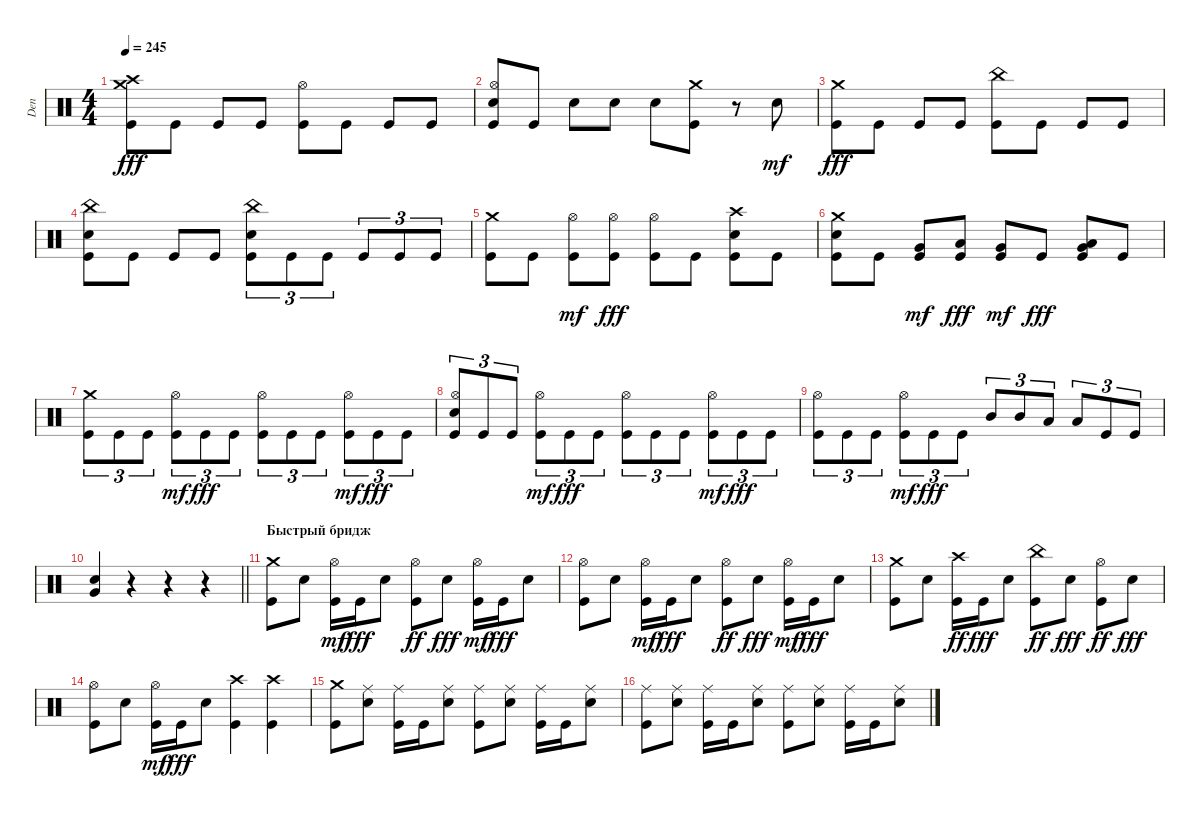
\track ("Den" "Den") {instrument percussion}
\staff {score}
\articulation defaults
\ts (4 4)
\tempo 245
\clef neutral
\ks c
("Crash medium (hit)" "Crash high (hit)" "Kick (hit)").8{dy fff} "Kick (hit)".8 "Kick (hit)".8 "Kick (hit)".8 ("Hi-Hat (open)" "Kick (hit)").8 "Kick (hit)".8 "Kick (hit)".8 "Kick (hit)".8 |
("Electric Snare (hit)" "Hi-Hat (open)" "Kick (hit)").8 "Kick (hit)".8 "Electric Snare (hit)".8 "Electric Snare (hit)".8 "Electric Snare (hit)".8 ("Crash medium (hit)" "Kick (hit)").8 r.8 "Electric Snare (hit)".8{dy mf} |
("Kick (hit)" "Crash medium (hit)").8{dy fff} "Kick (hit)".8 "Kick (hit)".8 "Kick (hit)".8 ("Kick (hit)" "China (hit)").8 "Kick (hit)".8 "Kick (hit)".8 "Kick (hit)".8 |
("Kick (hit)" "Electric Snare (hit)" "China (hit)").8 "Kick (hit)".8 "Kick (hit)".8 "Kick (hit)".8 ("Kick (hit)" "China (hit)" "Electric Snare (hit)").8{tu (3 2)} "Kick (hit)".8{tu (3 2)} "Kick (hit)".8{tu (3 2)} "Kick (hit)".8{tu (3 2)} "Kick (hit)".8{tu (3 2)} "Kick (hit)".8{tu (3 2)} |
("Kick (hit)" "Crash medium (hit)").8 "Kick (hit)".8 ("Kick (hit)" "Hi-Hat (open)").8{dy mf} ("Kick (hit)" "Hi-Hat (open)").8{dy fff} ("Kick (hit)" "Hi-Hat (open)").8 "Kick (hit)".8 ("Kick (hit)" "Crash high (hit)" "Electric Snare (hit)").8 "Kick (hit)".8 |
("Electric Snare (hit)" "Kick (hit)" "Crash medium (hit)").8 "Kick (hit)".8 ("Kick (hit)" "Very Low Tom (hit)").8{dy mf} ("Kick (hit)" "Low Tom (hit)").8{dy fff} ("Kick (hit)" "Very Low Tom (hit)").8{dy mf} "Kick (hit)".8{dy fff} ("Kick (hit)" "Very Low Tom (hit)" "Low Tom (hit)").8 "Kick (hit)".8 |
("Kick (hit)" "Crash medium (hit)").8{tu (3 2)} "Kick (hit)".8{tu (3 2)} "Kick (hit)".8{tu (3 2)} ("Kick (hit)" "Hi-Hat (open)").8{tu (3 2) dy mf} "Kick (hit)".8{tu (3 2) dy fff} "Kick (hit)".8{tu (3 2)} ("Kick (hit)" "Hi-Hat (open)").8{tu (3 2)} "Kick (hit)".8{tu (3 2)} "Kick (hit)".8{tu (3 2)} ("Kick (hit)" "Hi-Hat (open)").8{tu (3 2) dy mf} "Kick (hit)".8{tu (3 2) dy fff} "Kick (hit)".8{tu (3 2)} |
("Kick (hit)" "Hi-Hat (open)" "Electric Snare (hit)").8{tu (3 2)} "Kick (hit)".8{tu (3 2)} "Kick (hit)".8{tu (3 2)} ("Kick (hit)" "Hi-Hat (open)").8{tu (3 2) dy mf} "Kick (hit)".8{tu (3 2) dy fff} "Kick (hit)".8{tu (3 2)} ("Kick (hit)" "Hi-Hat (open)").8{tu (3 2)} "Kick (hit)".8{tu (3 2)} "Kick (hit)".8{tu (3 2)} ("Kick (hit)" "Hi-Hat (open)").8{tu (3 2) dy mf} "Kick (hit)".8{tu (3 2) dy fff} "Kick (hit)".8{tu (3 2)} |
("Kick (hit)" "Hi-Hat (open)").8{tu (3 2)} "Kick (hit)".8{tu (3 2)} "Kick (hit)".8{tu (3 2)} ("Kick (hit)" "Hi-Hat (open)").8{tu (3 2) dy mf} "Kick (hit)".8{tu (3 2) dy fff} "Kick (hit)".8{tu (3 2)} "Mid Tom (hit)".8{tu (3 2)} "Mid Tom (hit)".8{tu (3 2)} "Low Tom (hit)".8{tu (3 2)} "Low Tom (hit)".8{tu (3 2)} "Kick (hit)".8{tu (3 2)} "Kick (hit)".8{tu (3 2)} |
\barLineRight lightlight
("Electric Snare (hit)" "Very Low Tom (hit)").4 r.4 r.4 r.4 |
\section ("" "Быстрый бридж")
("Crash medium (hit)" "Kick (hit)").8 "Electric Snare (hit)".8 ("Kick (hit)" "Hi-Hat (open)").16{dy mf} "Kick (hit)".16{dy fff} "Electric Snare (hit)".8 ("Kick (hit)" "Hi-Hat (open)").8{dy ff} "Electric Snare (hit)".8{dy fff} ("Kick (hit)" "Hi-Hat (open)").16{dy mf} "Kick (hit)".16{dy fff} "Electric Snare (hit)".8 |
("Hi-Hat (open)" "Kick (hit)").8 "Electric Snare (hit)".8 ("Kick (hit)" "Hi-Hat (open)").16{dy mf} "Kick (hit)".16{dy fff} "Electric Snare (hit)".8 ("Kick (hit)" "Hi-Hat (open)").8{dy ff} "Electric Snare (hit)".8{dy fff} ("Kick (hit)" "Hi-Hat (open)").16{dy mf} "Kick (hit)".16{dy fff} "Electric Snare (hit)".8 |
("Crash medium (hit)" "Kick (hit)").8 "Electric Snare (hit)".8 ("Kick (hit)" "Crash high (hit)").16{dy ff} "Kick (hit)".16{dy fff} "Electric Snare (hit)".8 ("Kick (hit)" "China (hit)").8{dy ff} "Electric Snare (hit)".8{dy fff} ("Kick (hit)" "Hi-Hat (open)").8{dy ff} "Electric Snare (hit)".8{dy fff} |
("Hi-Hat (open)" "Kick (hit)").8 "Electric Snare (hit)".8 ("Kick (hit)" "Hi-Hat (open)").16{dy mf} "Kick (hit)".16{dy fff} "Electric Snare (hit)".8 ("Crash high (hit)" "Kick (hit)").4 ("Crash high (hit)" "Kick (hit)").4 |
("Crash medium (hit)" "Kick (hit)").8 ("Electric Snare (hit)" "Ride (middle)").8 ("Kick (hit)" "Ride (middle)").16 "Kick (hit)".16 ("Electric Snare (hit)" "Ride (middle)").8 ("Kick (hit)" "Ride (middle)").8 ("Electric Snare (hit)" "Ride (middle)").8 ("Kick (hit)" "Ride (middle)").16 "Kick (hit)".16 ("Electric Snare (hit)" "Ride (middle)").8 |
("Kick (hit)" "Ride (middle)").8 ("Electric Snare (hit)" "Ride (middle)").8 ("Kick (hit)" "Ride (middle)").16 "Kick (hit)".16 ("Electric Snare (hit)" "Ride (middle)").8 ("Kick (hit)" "Ride (middle)").8 ("Electric Snare (hit)" "Ride (middle)").8 ("Kick (hit)" "Ride (middle)").16 "Kick (hit)".16 ("Electric Snare (hit)" "Ride (middle)").8
